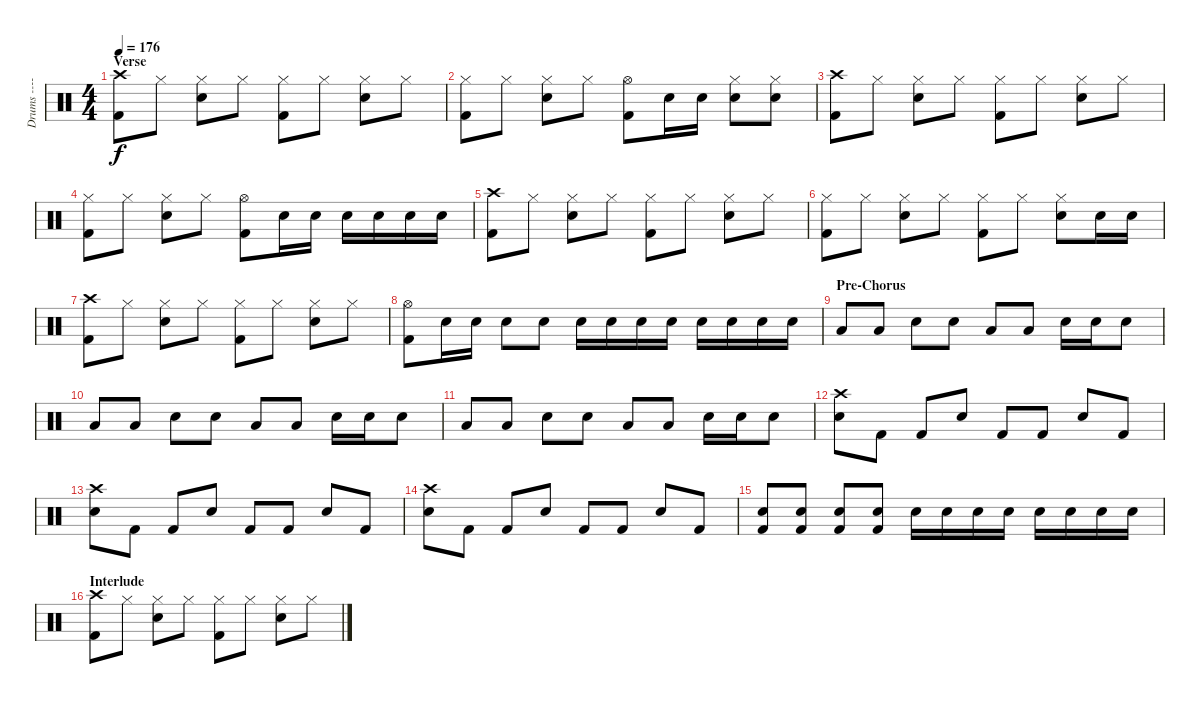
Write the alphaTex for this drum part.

\track ("Drums ----- Larry Mullen Junior" "Drums ----") {instrument percussion}
\staff {score}
\articulation defaults
\ts (4 4)
\section ("" "Verse")
\tempo 176
\clef neutral
\ks c
("Kick (hit) 2" "Crash high (hit)").8{dy f} "Hi-Hat (closed)".8 ("Electric Snare (hit)" "Hi-Hat (closed)").8 "Hi-Hat (closed)".8 ("Kick (hit) 2" "Hi-Hat (closed)").8 "Hi-Hat (closed)".8 ("Electric Snare (hit)" "Hi-Hat (closed)").8 "Hi-Hat (closed)".8 |
("Kick (hit) 2" "Hi-Hat (closed)").8 "Hi-Hat (closed)".8 ("Electric Snare (hit)" "Hi-Hat (closed)").8 "Hi-Hat (closed)".8 ("Kick (hit) 2" "Hi-Hat (open)").8 "Electric Snare (hit)".16 "Electric Snare (hit)".16 ("Electric Snare (hit)" "Hi-Hat (closed)").8 ("Electric Snare (hit)" "Hi-Hat (closed)").8 |
("Kick (hit) 2" "Crash high (hit)").8 "Hi-Hat (closed)".8 ("Electric Snare (hit)" "Hi-Hat (closed)").8 "Hi-Hat (closed)".8 ("Kick (hit) 2" "Hi-Hat (closed)").8 "Hi-Hat (closed)".8 ("Electric Snare (hit)" "Hi-Hat (closed)").8 "Hi-Hat (closed)".8 |
("Kick (hit) 2" "Hi-Hat (closed)").8 "Hi-Hat (closed)".8 ("Electric Snare (hit)" "Hi-Hat (closed)").8 "Hi-Hat (closed)".8 ("Kick (hit) 2" "Hi-Hat (open)").8 "Electric Snare (hit)".16 "Electric Snare (hit)".16 "Electric Snare (hit)".16 "Electric Snare (hit)".16 "Electric Snare (hit)".16 "Electric Snare (hit)".16 |
("Kick (hit) 2" "Crash high (hit)").8 "Hi-Hat (closed)".8 ("Electric Snare (hit)" "Hi-Hat (closed)").8 "Hi-Hat (closed)".8 ("Kick (hit) 2" "Hi-Hat (closed)").8 "Hi-Hat (closed)".8 ("Electric Snare (hit)" "Hi-Hat (closed)").8 "Hi-Hat (closed)".8 |
("Kick (hit) 2" "Hi-Hat (closed)").8 "Hi-Hat (closed)".8 ("Electric Snare (hit)" "Hi-Hat (closed)").8 "Hi-Hat (closed)".8 ("Kick (hit) 2" "Hi-Hat (closed)").8 "Hi-Hat (closed)".8 ("Electric Snare (hit)" "Hi-Hat (closed)").8 "Electric Snare (hit)".16 "Electric Snare (hit)".16 |
("Kick (hit) 2" "Crash high (hit)").8 "Hi-Hat (closed)".8 ("Electric Snare (hit)" "Hi-Hat (closed)").8 "Hi-Hat (closed)".8 ("Kick (hit) 2" "Hi-Hat (closed)").8 "Hi-Hat (closed)".8 ("Electric Snare (hit)" "Hi-Hat (closed)").8 "Hi-Hat (closed)".8 |
("Kick (hit) 2" "Hi-Hat (open)").8 "Snare (hit) 2".16 "Electric Snare (hit)".16 "Electric Snare (hit)".8 "Electric Snare (hit)".8 "Electric Snare (hit)".16 "Electric Snare (hit)".16 "Electric Snare (hit)".16 "Electric Snare (hit)".16 "Electric Snare (hit)".16 "Electric Snare (hit)".16 "Electric Snare (hit)".16 "Electric Snare (hit)".16 |
\section ("" "Pre-Chorus")
"Low Floor Tom (hit)".8 "Low Floor Tom (hit)".8 "Electric Snare (hit)".8 "Electric Snare (hit)".8 "Low Floor Tom (hit)".8 "Low Floor Tom (hit)".8 "Electric Snare (hit)".16 "Electric Snare (hit)".16 "Electric Snare (hit)".8 |
"Low Floor Tom (hit)".8 "Low Floor Tom (hit)".8 "Electric Snare (hit)".8 "Electric Snare (hit)".8 "Low Floor Tom (hit)".8 "Low Floor Tom (hit)".8 "Electric Snare (hit)".16 "Electric Snare (hit)".16 "Electric Snare (hit)".8 |
"Low Floor Tom (hit)".8 "Low Floor Tom (hit)".8 "Electric Snare (hit)".8 "Electric Snare (hit)".8 "Low Floor Tom (hit)".8 "Low Floor Tom (hit)".8 "Electric Snare (hit)".16 "Electric Snare (hit)".16 "Electric Snare (hit)".8 |
("Electric Snare (hit)" "Crash high (hit)").8 "Kick (hit) 2".8 "Kick (hit) 2".8 "Electric Snare (hit)".8 "Kick (hit) 2".8 "Kick (hit) 2".8 "Electric Snare (hit)".8 "Kick (hit) 2".8 |
("Electric Snare (hit)" "Crash high (hit)").8 "Kick (hit) 2".8 "Kick (hit) 2".8 "Electric Snare (hit)".8 "Kick (hit) 2".8 "Kick (hit) 2".8 "Electric Snare (hit)".8 "Kick (hit) 2".8 |
("Electric Snare (hit)" "Crash high (hit)").8 "Kick (hit) 2".8 "Kick (hit) 2".8 "Electric Snare (hit)".8 "Kick (hit) 2".8 "Kick (hit) 2".8 "Electric Snare (hit)".8 "Kick (hit) 2".8 |
("Electric Snare (hit)" "Kick (hit) 2").8 ("Electric Snare (hit)" "Kick (hit) 2").8 ("Electric Snare (hit)" "Kick (hit) 2").8 ("Electric Snare (hit)" "Kick (hit) 2").8 "Electric Snare (hit)".16 "Electric Snare (hit)".16 "Electric Snare (hit)".16 "Electric Snare (hit)".16 "Electric Snare (hit)".16 "Electric Snare (hit)".16 "Electric Snare (hit)".16 "Electric Snare (hit)".16 |
\section ("" "Interlude")
("Kick (hit) 2" "Crash high (hit)").8 "Hi-Hat (closed)".8 ("Electric Snare (hit)" "Hi-Hat (closed)").8 "Hi-Hat (closed)".8 ("Kick (hit) 2" "Hi-Hat (closed)").8 "Hi-Hat (closed)".8 ("Electric Snare (hit)" "Hi-Hat (closed)").8 "Hi-Hat (closed)".8
